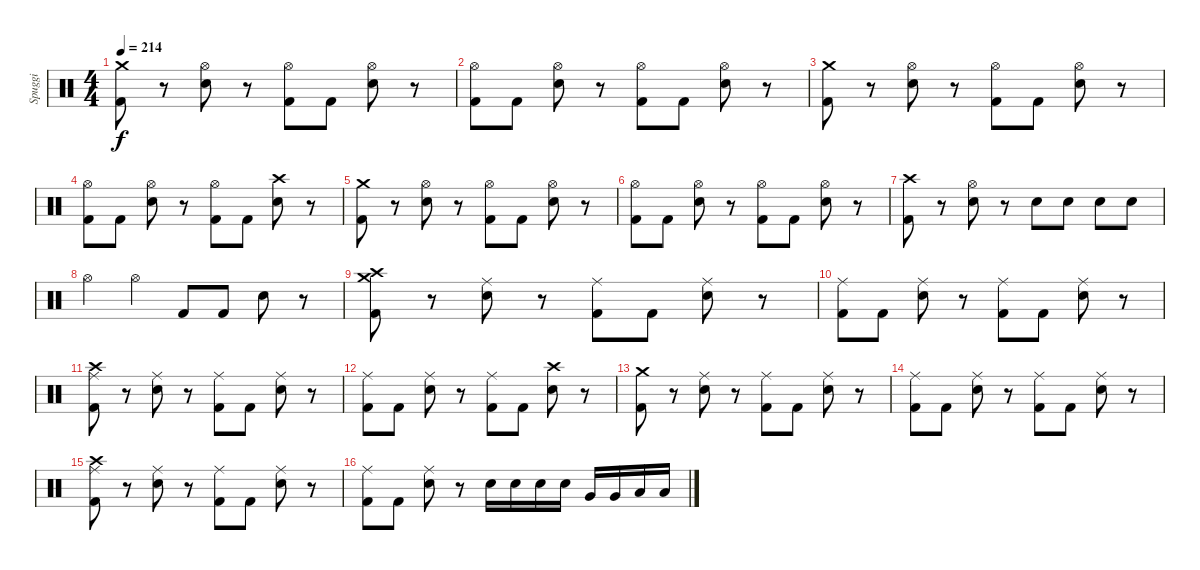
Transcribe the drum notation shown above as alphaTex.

\track ("Spuggi" "Spuggi") {instrument percussion}
\staff {score}
\articulation defaults
\ts (4 4)
\tempo 214
\clef neutral
\ks c
("Crash medium (hit)" "Kick (hit) 2").8{dy f} r.8 ("Hi-Hat (open)" "Snare (hit) 2").8 r.8 ("Hi-Hat (open)" "Kick (hit) 2").8 "Kick (hit) 2".8 ("Hi-Hat (open)" "Snare (hit) 2").8 r.8 |
("Hi-Hat (open)" "Kick (hit) 2").8 "Kick (hit) 2".8 ("Hi-Hat (open)" "Snare (hit) 2").8 r.8 ("Hi-Hat (open)" "Kick (hit) 2").8 "Kick (hit) 2".8 ("Hi-Hat (open)" "Snare (hit) 2").8 r.8 |
("Crash medium (hit)" "Kick (hit) 2").8 r.8 ("Hi-Hat (open)" "Snare (hit) 2").8 r.8 ("Hi-Hat (open)" "Kick (hit) 2").8 "Kick (hit) 2".8 ("Hi-Hat (open)" "Snare (hit) 2").8 r.8 |
("Hi-Hat (open)" "Kick (hit) 2").8 "Kick (hit) 2".8 ("Hi-Hat (open)" "Snare (hit) 2").8 r.8 ("Hi-Hat (open)" "Kick (hit) 2").8 "Kick (hit) 2".8 ("Crash high (hit)" "Snare (hit) 2").8 r.8 |
("Crash medium (hit)" "Kick (hit) 2").8 r.8 ("Hi-Hat (open)" "Snare (hit) 2").8 r.8 ("Hi-Hat (open)" "Kick (hit) 2").8 "Kick (hit) 2".8 ("Hi-Hat (open)" "Snare (hit) 2").8 r.8 |
("Hi-Hat (open)" "Kick (hit) 2").8 "Kick (hit) 2".8 ("Hi-Hat (open)" "Snare (hit) 2").8 r.8 ("Hi-Hat (open)" "Kick (hit) 2").8 "Kick (hit) 2".8 ("Hi-Hat (open)" "Snare (hit) 2").8 r.8 |
("Crash high (hit)" "Kick (hit) 2").8 r.8 ("Hi-Hat (open)" "Snare (hit) 2").8 r.8 "Snare (hit) 2".8 "Snare (hit) 2".8 "Snare (hit) 2".8 "Snare (hit) 2".8 |
"Hi-Hat (open)".4 "Hi-Hat (open)".4 "Kick (hit) 2".8 "Kick (hit) 2".8 "Snare (hit) 2".8 r.8 |
("Crash high (hit)" "Crash medium (hit)" "Kick (hit) 2").8 r.8 ("Ride (middle)" "Snare (hit) 2").8 r.8 ("Ride (middle)" "Kick (hit) 2").8 "Kick (hit) 2".8 ("Ride (middle)" "Snare (hit) 2").8 r.8 |
("Ride (middle)" "Kick (hit) 2").8 "Kick (hit) 2".8 ("Ride (middle)" "Snare (hit) 2").8 r.8 ("Ride (middle)" "Kick (hit) 2").8 "Kick (hit) 2".8 ("Ride (middle)" "Snare (hit) 2").8 r.8 |
("Crash high (hit)" "Ride (middle)" "Kick (hit) 2").8 r.8 ("Ride (middle)" "Snare (hit) 2").8 r.8 ("Ride (middle)" "Kick (hit) 2").8 "Kick (hit) 2".8 ("Ride (middle)" "Snare (hit) 2").8 r.8 |
("Ride (middle)" "Kick (hit) 2").8 "Kick (hit) 2".8 ("Ride (middle)" "Snare (hit) 2").8 r.8 ("Ride (middle)" "Kick (hit) 2").8 "Kick (hit) 2".8 ("Crash high (hit)" "Snare (hit) 2").8 r.8 |
("Crash medium (hit)" "Kick (hit) 2").8 r.8 ("Ride (middle)" "Snare (hit) 2").8 r.8 ("Ride (middle)" "Kick (hit) 2").8 "Kick (hit) 2".8 ("Ride (middle)" "Snare (hit) 2").8 r.8 |
("Ride (middle)" "Kick (hit) 2").8 "Kick (hit) 2".8 ("Ride (middle)" "Snare (hit) 2").8 r.8 ("Ride (middle)" "Kick (hit) 2").8 "Kick (hit) 2".8 ("Ride (middle)" "Snare (hit) 2").8 r.8 |
("Crash high (hit)" "Ride (middle)" "Kick (hit) 2").8 r.8 ("Ride (middle)" "Snare (hit) 2").8 r.8 ("Ride (middle)" "Kick (hit) 2").8 "Kick (hit) 2".8 ("Ride (middle)" "Snare (hit) 2").8 r.8 |
("Ride (middle)" "Kick (hit) 2").8 "Kick (hit) 2".8 ("Ride (middle)" "Snare (hit) 2").8 r.8 "Snare (hit) 2".16 "Snare (hit) 2".16 "Snare (hit) 2".16 "Snare (hit) 2".16 "Very Low Tom (hit)".16 "Very Low Tom (hit)".16 "Low Floor Tom (hit)".16 "Low Floor Tom (hit)".16
